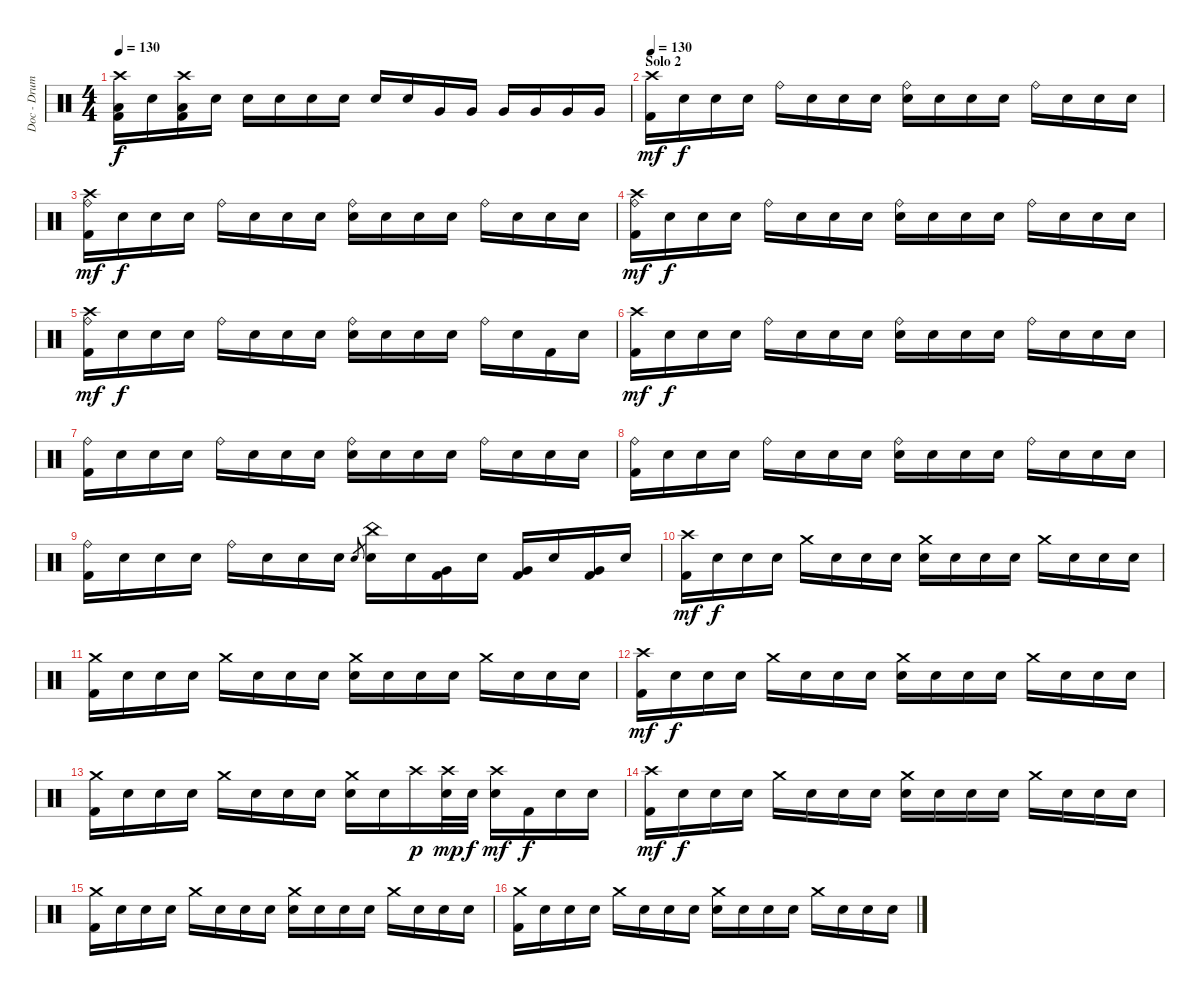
\track ("Doc - Drums" "Doc - Drum") {instrument percussion}
\staff {score}
\articulation defaults
\ts (4 4)
\tempo 130
\clef neutral
\ks c
("Crash high (hit)" "Low Floor Tom (hit)" "Kick (hit) 2").16{dy f} "Snare (hit)".16 ("Crash high (hit)" "Low Floor Tom (hit)" "Kick (hit) 2").16 "Snare (hit)".16 "Electric Snare (hit)".16 "Electric Snare (hit)".16 "Electric Snare (hit)".16 "Electric Snare (hit)".16 "Electric Snare (hit)".16 "Electric Snare (hit)".16 "Very Low Tom (hit)".16 "Very Low Tom (hit)".16 "Very Low Tom (hit)".16 "Very Low Tom (hit)".16 "Very Low Tom (hit)".16 "Very Low Tom (hit)".16 |
\section ("" "Solo 2")
\tempo 130
("Crash high (hit)" "Kick (hit) 2").16{dy mf volume 16 balance 8} "Snare (hit)".16{dy f} "Snare (hit)".16 "Snare (hit)".16 "Ride (bell)".16 "Snare (hit)".16 "Snare (hit)".16 "Snare (hit)".16 ("Ride (bell)" "Electric Snare (hit)").16 "Snare (hit)".16 "Snare (hit)".16 "Snare (hit)".16 "Ride (bell)".16 "Snare (hit)".16 "Snare (hit)".16 "Snare (hit)".16 |
("Ride (bell)" "Crash high (hit)" "Kick (hit) 2").16{dy mf} "Snare (hit)".16{dy f} "Snare (hit)".16 "Snare (hit)".16 "Ride (bell)".16 "Snare (hit)".16 "Snare (hit)".16 "Snare (hit)".16 ("Ride (bell)" "Electric Snare (hit)").16 "Snare (hit)".16 "Snare (hit)".16 "Snare (hit)".16 "Ride (bell)".16 "Snare (hit)".16 "Snare (hit)".16 "Snare (hit)".16 |
("Ride (bell)" "Crash high (hit)" "Kick (hit) 2").16{dy mf} "Snare (hit)".16{dy f} "Snare (hit)".16 "Snare (hit)".16 "Ride (bell)".16 "Snare (hit)".16 "Snare (hit)".16 "Snare (hit)".16 ("Ride (bell)" "Electric Snare (hit)").16 "Snare (hit)".16 "Snare (hit)".16 "Snare (hit)".16 "Ride (bell)".16 "Snare (hit)".16 "Snare (hit)".16 "Snare (hit)".16 |
("Ride (bell)" "Crash high (hit)" "Kick (hit) 2").16{dy mf} "Snare (hit)".16{dy f} "Snare (hit)".16 "Snare (hit)".16 "Ride (bell)".16 "Snare (hit)".16 "Snare (hit)".16 "Snare (hit)".16 ("Ride (bell)" "Electric Snare (hit)").16 "Snare (hit)".16 "Snare (hit)".16 "Snare (hit)".16 "Ride (bell)".16 "Snare (hit)".16 "Kick (hit) 2".16 "Snare (hit)".16 |
("Crash high (hit)" "Kick (hit) 2").16{dy mf} "Snare (hit)".16{dy f} "Snare (hit)".16 "Snare (hit)".16 "Ride (bell)".16 "Snare (hit)".16 "Snare (hit)".16 "Snare (hit)".16 ("Ride (bell)" "Electric Snare (hit)").16 "Snare (hit)".16 "Snare (hit)".16 "Snare (hit)".16 "Ride (bell)".16 "Snare (hit)".16 "Snare (hit)".16 "Snare (hit)".16 |
("Ride (bell)" "Kick (hit) 2").16 "Snare (hit)".16 "Snare (hit)".16 "Snare (hit)".16 "Ride (bell)".16 "Snare (hit)".16 "Snare (hit)".16 "Snare (hit)".16 ("Ride (bell)" "Electric Snare (hit)").16 "Snare (hit)".16 "Snare (hit)".16 "Snare (hit)".16 "Ride (bell)".16 "Snare (hit)".16 "Snare (hit)".16 "Snare (hit)".16 |
("Ride (bell)" "Kick (hit) 2").16 "Snare (hit)".16 "Snare (hit)".16 "Snare (hit)".16 "Ride (bell)".16 "Snare (hit)".16 "Snare (hit)".16 "Snare (hit)".16 ("Ride (bell)" "Electric Snare (hit)").16 "Snare (hit)".16 "Snare (hit)".16 "Snare (hit)".16 "Ride (bell)".16 "Snare (hit)".16 "Snare (hit)".16 "Snare (hit)".16 |
("Ride (bell)" "Kick (hit) 2").16 "Snare (hit)".16 "Snare (hit)".16 "Snare (hit)".16 "Ride (bell)".16 "Snare (hit)".16 "Snare (hit)".16 "Snare (hit)".16 "Electric Snare (hit)".8{gr} ("China (hit)" "Electric Snare (hit)").16 "Snare (hit)".16 ("Very Low Tom (hit)" "Kick (hit) 2").16 "Snare (hit)".16 ("Very Low Tom (hit)" "Kick (hit) 2").16 "Snare (hit)".16 ("Very Low Tom (hit)" "Kick (hit) 2").16 "Snare (hit)".16 |
("Crash high (hit)" "Kick (hit) 2").16{dy mf} "Snare (hit)".16{dy f} "Snare (hit)".16 "Snare (hit)".16 "Crash medium (hit)".16 "Snare (hit)".16 "Snare (hit)".16 "Snare (hit)".16 ("Crash medium (hit)" "Electric Snare (hit)").16 "Snare (hit)".16 "Snare (hit)".16 "Snare (hit)".16 "Crash medium (hit)".16 "Snare (hit)".16 "Snare (hit)".16 "Snare (hit)".16 |
("Crash medium (hit)" "Kick (hit) 2").16 "Snare (hit)".16 "Snare (hit)".16 "Snare (hit)".16 "Crash medium (hit)".16 "Snare (hit)".16 "Snare (hit)".16 "Snare (hit)".16 ("Crash medium (hit)" "Electric Snare (hit)").16 "Snare (hit)".16 "Snare (hit)".16 "Snare (hit)".16 "Crash medium (hit)".16 "Snare (hit)".16 "Snare (hit)".16 "Snare (hit)".16 |
("Crash high (hit)" "Kick (hit) 2").16{dy mf} "Snare (hit)".16{dy f} "Snare (hit)".16 "Snare (hit)".16 "Crash medium (hit)".16 "Snare (hit)".16 "Snare (hit)".16 "Snare (hit)".16 ("Crash medium (hit)" "Electric Snare (hit)").16 "Snare (hit)".16 "Snare (hit)".16 "Snare (hit)".16 "Crash medium (hit)".16 "Snare (hit)".16 "Snare (hit)".16 "Snare (hit)".16 |
("Crash medium (hit)" "Kick (hit) 2").16 "Snare (hit)".16 "Snare (hit)".16 "Snare (hit)".16 "Crash medium (hit)".16 "Snare (hit)".16 "Snare (hit)".16 "Snare (hit)".16 ("Crash medium (hit)" "Electric Snare (hit)").16 "Snare (hit)".16 "Crash high (hit)".16{dy p} ("Crash high (hit)" "Electric Snare (hit)").32{dy mp} "Electric Snare (hit)".32{dy f} ("Crash high (hit)" "Electric Snare (hit)").16{dy mf} "Kick (hit) 2".16{dy f} "Snare (hit)".16 "Snare (hit)".16 |
("Crash high (hit)" "Kick (hit) 2").16{dy mf} "Snare (hit)".16{dy f} "Snare (hit)".16 "Snare (hit)".16 "Crash medium (hit)".16 "Snare (hit)".16 "Snare (hit)".16 "Snare (hit)".16 ("Crash medium (hit)" "Electric Snare (hit)").16 "Snare (hit)".16 "Snare (hit)".16 "Snare (hit)".16 "Crash medium (hit)".16 "Snare (hit)".16 "Snare (hit)".16 "Snare (hit)".16 |
("Crash medium (hit)" "Kick (hit) 2").16 "Snare (hit)".16 "Snare (hit)".16 "Snare (hit)".16 "Crash medium (hit)".16 "Snare (hit)".16 "Snare (hit)".16 "Snare (hit)".16 ("Crash medium (hit)" "Electric Snare (hit)").16 "Snare (hit)".16 "Snare (hit)".16 "Snare (hit)".16 "Crash medium (hit)".16 "Snare (hit)".16 "Snare (hit)".16 "Snare (hit)".16 |
("Crash medium (hit)" "Kick (hit) 2").16 "Snare (hit)".16 "Snare (hit)".16 "Snare (hit)".16 "Crash medium (hit)".16 "Snare (hit)".16 "Snare (hit)".16 "Snare (hit)".16 ("Crash medium (hit)" "Electric Snare (hit)").16 "Snare (hit)".16 "Snare (hit)".16 "Snare (hit)".16 "Crash medium (hit)".16 "Snare (hit)".16 "Snare (hit)".16 "Snare (hit)".16
